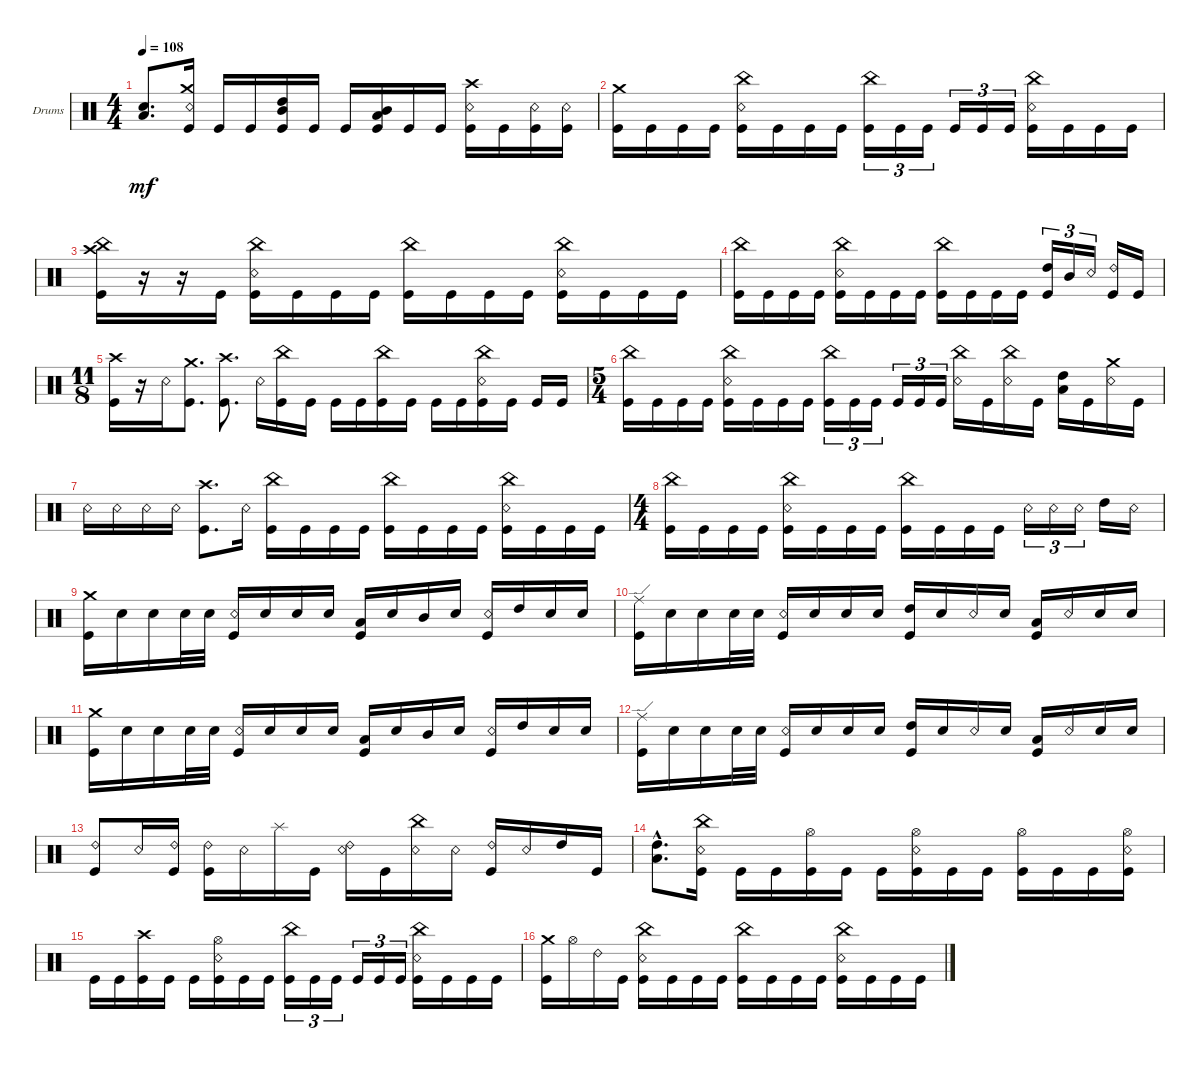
\defaultSystemsLayout 4
\bracketExtendMode groupsimilarinstruments
\firstSystemTrackNameOrientation horizontal
\otherSystemsTrackNameOrientation horizontal
\track ("Drumkit" "Drums") {instrument percussion}
\staff {score}
\articulation defaults
\ts (4 4)
\tempo 108
\clef neutral
\ks c
("Snare (hit) 2" "Low Tom (hit)").8{d dy mf} ("Snare (rim shot)" "Crash medium (hit)" "Kick (hit)").16 "Kick (hit)".16 "Kick (hit)".16 ("Kick (hit)" "High Tom (hit)" "Mid Tom (hit)").16 "Kick (hit)".16 "Kick (hit)".16 ("Kick (hit)" "Mid Tom (hit)" "Low Tom (hit)").16 "Kick (hit)".16 "Kick (hit)".16 ("Kick (hit)" "Snare (rim shot)" "Crash high (hit)").16 "Kick (hit)".16 ("Kick (hit)" "Snare (rim shot)").16 ("Kick (hit)" "Snare (rim shot)").16 |
("Kick (hit)" "Crash medium (hit)").16 "Kick (hit)".16 "Kick (hit)".16 "Kick (hit)".16 ("Kick (hit)" "China (hit)" "Snare (rim shot)").16 "Kick (hit)".16 "Kick (hit)".16 "Kick (hit)".16 ("Kick (hit)" "China (hit)").16{tu (3 2)} "Kick (hit)".16{tu (3 2)} "Kick (hit)".16{tu (3 2)} "Kick (hit)".16{tu (3 2)} "Kick (hit)".16{tu (3 2)} "Kick (hit)".16{tu (3 2)} ("Kick (hit)" "China (hit)" "Snare (rim shot)").16 "Kick (hit)".16 "Kick (hit)".16 "Kick (hit)".16 |
("Kick (hit)" "China (hit)" "Crash high (hit)").16 r.16 r.16 "Kick (hit)".16 ("Kick (hit)" "China (hit)" "Snare (rim shot)").16 "Kick (hit)".16 "Kick (hit)".16 "Kick (hit)".16 ("Kick (hit)" "China (hit)").16 "Kick (hit)".16 "Kick (hit)".16 "Kick (hit)".16 ("Kick (hit)" "China (hit)" "Snare (rim shot)").16 "Kick (hit)".16 "Kick (hit)".16 "Kick (hit)".16 |
("Kick (hit)" "China (hit)").16 "Kick (hit)".16 "Kick (hit)".16 "Kick (hit)".16 ("Kick (hit)" "China (hit)" "Snare (rim shot)").16 "Kick (hit)".16 "Kick (hit)".16 "Kick (hit)".16 ("Kick (hit)" "China (hit)").16 "Kick (hit)".16 "Kick (hit)".16 "Kick (hit)".16 ("High Tom (hit)" "Kick (hit)").16{tu (3 2)} "Mid Tom (hit)".16{tu (3 2)} "Snare (rim shot)".16{tu (3 2)} ("Ride (bell) 2" "Kick (hit)").16 "Kick (hit)".16 |
\ts (11 8)
("Kick (hit)" "Crash high (hit)").16 r.16 "Snare (rim shot)".16 ("Kick (hit)" "Crash medium (hit)").8{d} ("Kick (hit)" "Crash high (hit)").8{d} "Snare (rim shot)".16 ("Kick (hit)" "China (hit)").16 "Kick (hit)".16 "Kick (hit)".16 "Kick (hit)".16 ("Kick (hit)" "China (hit)").16 "Kick (hit)".16 "Kick (hit)".16 "Kick (hit)".16 ("Kick (hit)" "China (hit)" "Snare (rim shot)").16 "Kick (hit)".16 "Kick (hit)".16 "Kick (hit)".16 |
\ts (5 4)
("Kick (hit)" "China (hit)").16 "Kick (hit)".16 "Kick (hit)".16 "Kick (hit)".16 ("Kick (hit)" "China (hit)" "Snare (rim shot)").16 "Kick (hit)".16 "Kick (hit)".16 "Kick (hit)".16 ("Kick (hit)" "China (hit)").16{tu (3 2)} "Kick (hit)".16{tu (3 2)} "Kick (hit)".16{tu (3 2)} "Kick (hit)".16{tu (3 2)} "Kick (hit)".16{tu (3 2)} "Kick (hit)".16{tu (3 2)} ("China (hit)" "Snare (rim shot)").16 "Kick (hit)".16 ("China (hit)" "Snare (rim shot)").16 "Kick (hit)".16 ("Low Tom (hit)" "High Tom (hit)").16 "Kick (hit)".16 ("Snare (rim shot)" "Crash medium (hit)").16 "Kick (hit)".16 |
"Snare (rim shot)".16 "Snare (rim shot)".16 "Snare (rim shot)".16 "Snare (rim shot)".16 ("Kick (hit)" "Crash high (hit)").8{d} "Snare (rim shot)".16 ("Kick (hit)" "China (hit)").16 "Kick (hit)".16 "Kick (hit)".16 "Kick (hit)".16 ("Kick (hit)" "China (hit)").16 "Kick (hit)".16 "Kick (hit)".16 "Kick (hit)".16 ("Kick (hit)" "China (hit)" "Snare (rim shot)").16 "Kick (hit)".16 "Kick (hit)".16 "Kick (hit)".16 |
\ts (4 4)
("Kick (hit)" "China (hit)").16 "Kick (hit)".16 "Kick (hit)".16 "Kick (hit)".16 ("Kick (hit)" "China (hit)" "Snare (rim shot)").16 "Kick (hit)".16 "Kick (hit)".16 "Kick (hit)".16 ("Kick (hit)" "China (hit)").16 "Kick (hit)".16 "Kick (hit)".16 "Kick (hit)".16 "Snare (rim shot)".16{tu (3 2)} "Snare (rim shot)".16{tu (3 2)} "Snare (rim shot)".16{tu (3 2)} "High Tom (hit)".16 "Snare (rim shot)".16 |
("Kick (hit)" "Crash medium (hit)").16 "Snare (hit) 2".16 "Snare (hit) 2".16 "Snare (hit) 2".32 "Snare (hit) 2".32 ("Kick (hit)" "Snare (rim shot)").16 "Snare (hit) 2".16 "Snare (hit) 2".16 "Snare (hit) 2".16 ("Kick (hit)" "Low Tom (hit)").16 "Snare (hit) 2".16 "Mid Tom (hit)".16 "Snare (hit) 2".16 ("Kick (hit)" "Snare (rim shot)").16 "High Tom (hit)".16 "Snare (hit) 2".16 "Snare (hit) 2".16 |
("Kick (hit)" "Ride (edge)").16 "Snare (hit) 2".16 "Snare (hit) 2".16 "Snare (hit) 2".32 "Snare (hit) 2".32 ("Kick (hit)" "Snare (rim shot)").16 "Snare (hit) 2".16 "Snare (hit) 2".16 "Snare (hit) 2".16 ("Kick (hit)" "High Tom (hit)").16 "Snare (hit) 2".16 "Snare (rim shot)".16 "Snare (hit) 2".16 ("Kick (hit)" "Low Tom (hit)").16 "Snare (rim shot)".16 "Snare (hit) 2".16 "Snare (hit) 2".16 |
("Kick (hit)" "Crash medium (hit)").16 "Snare (hit) 2".16 "Snare (hit) 2".16 "Snare (hit) 2".32 "Snare (hit) 2".32 ("Kick (hit)" "Snare (rim shot)").16 "Snare (hit) 2".16 "Snare (hit) 2".16 "Snare (hit) 2".16 ("Kick (hit)" "Low Tom (hit)").16 "Snare (hit) 2".16 "Mid Tom (hit)".16 "Snare (hit) 2".16 ("Kick (hit)" "Snare (rim shot)").16 "High Tom (hit)".16 "Snare (hit) 2".16 "Snare (hit) 2".16 |
("Kick (hit)" "Ride (edge)").16 "Snare (hit) 2".16 "Snare (hit) 2".16 "Snare (hit) 2".32 "Snare (hit) 2".32 ("Kick (hit)" "Snare (rim shot)").16 "Snare (hit) 2".16 "Snare (hit) 2".16 "Snare (hit) 2".16 ("Kick (hit)" "High Tom (hit)").16 "Snare (hit) 2".16 "Snare (rim shot)".16 "Snare (hit) 2".16 ("Kick (hit)" "Low Tom (hit)").16 "Snare (rim shot)".16 "Snare (hit) 2".16 "Snare (hit) 2".16 |
("Kick (hit)" "Ride (bell) 2").8 "Snare (rim shot)".16 ("Kick (hit)" "Ride (bell) 2").16 ("Kick (hit)" "Ride (bell) 2").16 "Snare (rim shot)".16 "Splash (hit)".16 "Kick (hit)".16 ("Snare (rim shot)" "Ride (bell) 2").16 "Kick (hit)".16 ("Snare (rim shot)" "China (hit)").16 "Snare (rim shot)".16 ("Kick (hit)" "Ride (bell) 2").16 "Snare (rim shot)".16 "High Tom (hit)".16 "Kick (hit)".16 |
("Low Tom (hit)"{hac} "High Tom (hit)"{hac}).8{d} ("Snare (rim shot)" "Kick (hit)" "China (hit)").16 "Kick (hit)".16 "Kick (hit)".16 ("Kick (hit)" "Hi-Hat (open)").16 "Kick (hit)".16 "Kick (hit)".16 ("Kick (hit)" "Snare (rim shot)" "Hi-Hat (open)").16 "Kick (hit)".16 "Kick (hit)".16 ("Kick (hit)" "Hi-Hat (open)").16 "Kick (hit)".16 "Kick (hit)".16 ("Kick (hit)" "Snare (rim shot)" "Hi-Hat (open)").16 |
"Kick (hit)".16 "Kick (hit)".16 ("Kick (hit)" "Crash high (hit)").16 "Kick (hit)".16 "Kick (hit)".16 ("Kick (hit)" "Snare (rim shot)" "Hi-Hat (open)").16 "Kick (hit)".16 "Kick (hit)".16 ("Kick (hit)" "China (hit)").16{tu (3 2)} "Kick (hit)".16{tu (3 2)} "Kick (hit)".16{tu (3 2)} "Kick (hit)".16{tu (3 2)} "Kick (hit)".16{tu (3 2)} "Kick (hit)".16{tu (3 2)} ("Kick (hit)" "China (hit)" "Snare (rim shot)").16 "Kick (hit)".16 "Kick (hit)".16 "Kick (hit)".16 |
("Kick (hit)" "Crash medium (hit)").16 "Hi-Hat (open)".16 "Ride (bell) 2".16 "Kick (hit)".16 ("Kick (hit)" "Snare (rim shot)" "China (hit)").16 "Kick (hit)".16 "Kick (hit)".16 "Kick (hit)".16 ("Kick (hit)" "China (hit)").16 "Kick (hit)".16 "Kick (hit)".16 "Kick (hit)".16 ("Kick (hit)" "China (hit)" "Snare (rim shot)").16 "Kick (hit)".16 "Kick (hit)".16 "Kick (hit)".16
